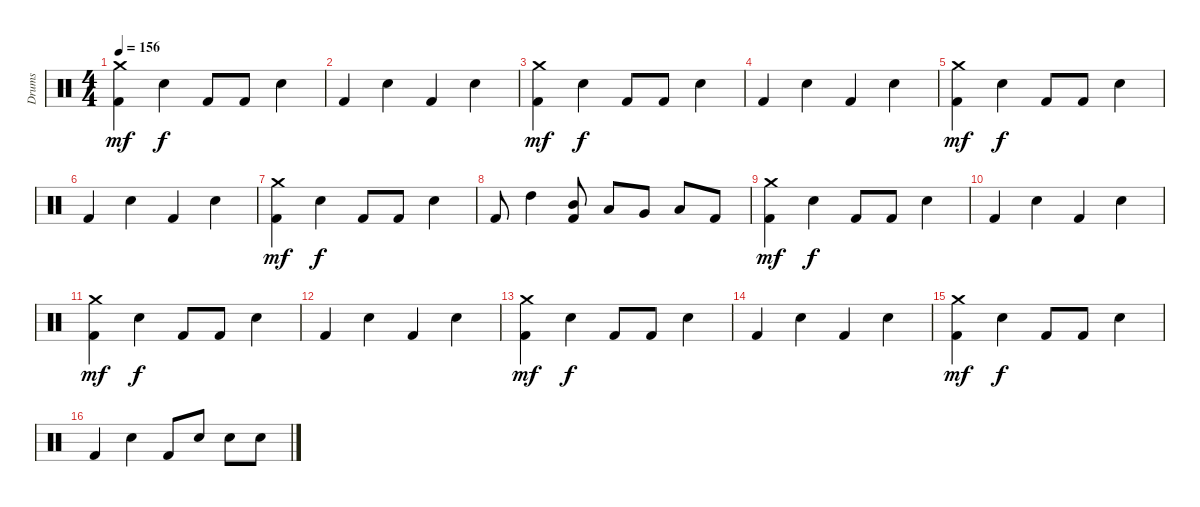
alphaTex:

\track ("Drums" "Drums") {instrument percussion}
\staff {score}
\articulation defaults
\ts (4 4)
\tempo 156
\clef neutral
\ks c
("Crash medium (hit)" "Kick (hit) 2").4{dy mf} "Snare (hit) 2".4{dy f} "Kick (hit) 2".8 "Kick (hit) 2".8 "Snare (hit) 2".4 |
"Kick (hit) 2".4 "Snare (hit) 2".4 "Kick (hit) 2".4 "Snare (hit) 2".4 |
("Crash medium (hit)" "Kick (hit) 2").4{dy mf} "Snare (hit) 2".4{dy f} "Kick (hit) 2".8 "Kick (hit) 2".8 "Snare (hit) 2".4 |
"Kick (hit) 2".4 "Snare (hit) 2".4 "Kick (hit) 2".4 "Snare (hit) 2".4 |
("Crash medium (hit)" "Kick (hit) 2").4{dy mf} "Snare (hit) 2".4{dy f} "Kick (hit) 2".8 "Kick (hit) 2".8 "Snare (hit) 2".4 |
"Kick (hit) 2".4 "Snare (hit) 2".4 "Kick (hit) 2".4 "Snare (hit) 2".4 |
("Crash medium (hit)" "Kick (hit) 2").4{dy mf} "Snare (hit) 2".4{dy f} "Kick (hit) 2".8 "Kick (hit) 2".8 "Snare (hit) 2".4 |
"Kick (hit) 2".8 "High Tom (hit)".4 ("Mid Tom (hit)" "Kick (hit) 2").8 "Low Tom (hit)".8 "Very Low Tom (hit)".8 "Low Floor Tom (hit)".8 "Kick (hit) 2".8 |
("Crash medium (hit)" "Kick (hit) 2").4{dy mf} "Snare (hit) 2".4{dy f} "Kick (hit) 2".8 "Kick (hit) 2".8 "Snare (hit) 2".4 |
"Kick (hit) 2".4 "Snare (hit) 2".4 "Kick (hit) 2".4 "Snare (hit) 2".4 |
("Crash medium (hit)" "Kick (hit) 2").4{dy mf} "Snare (hit) 2".4{dy f} "Kick (hit) 2".8 "Kick (hit) 2".8 "Snare (hit) 2".4 |
"Kick (hit) 2".4 "Snare (hit) 2".4 "Kick (hit) 2".4 "Snare (hit) 2".4 |
("Crash medium (hit)" "Kick (hit) 2").4{dy mf volume 6} "Snare (hit) 2".4{dy f} "Kick (hit) 2".8 "Kick (hit) 2".8 "Snare (hit) 2".4 |
"Kick (hit) 2".4 "Snare (hit) 2".4 "Kick (hit) 2".4 "Snare (hit) 2".4 |
("Crash medium (hit)" "Kick (hit) 2").4{dy mf volume 0} "Snare (hit) 2".4{dy f} "Kick (hit) 2".8 "Kick (hit) 2".8 "Snare (hit) 2".4 |
"Kick (hit) 2".4 "Snare (hit) 2".4 "Kick (hit) 2".8 "Snare (hit) 2".8 "Snare (hit) 2".8 "Snare (hit) 2".8
